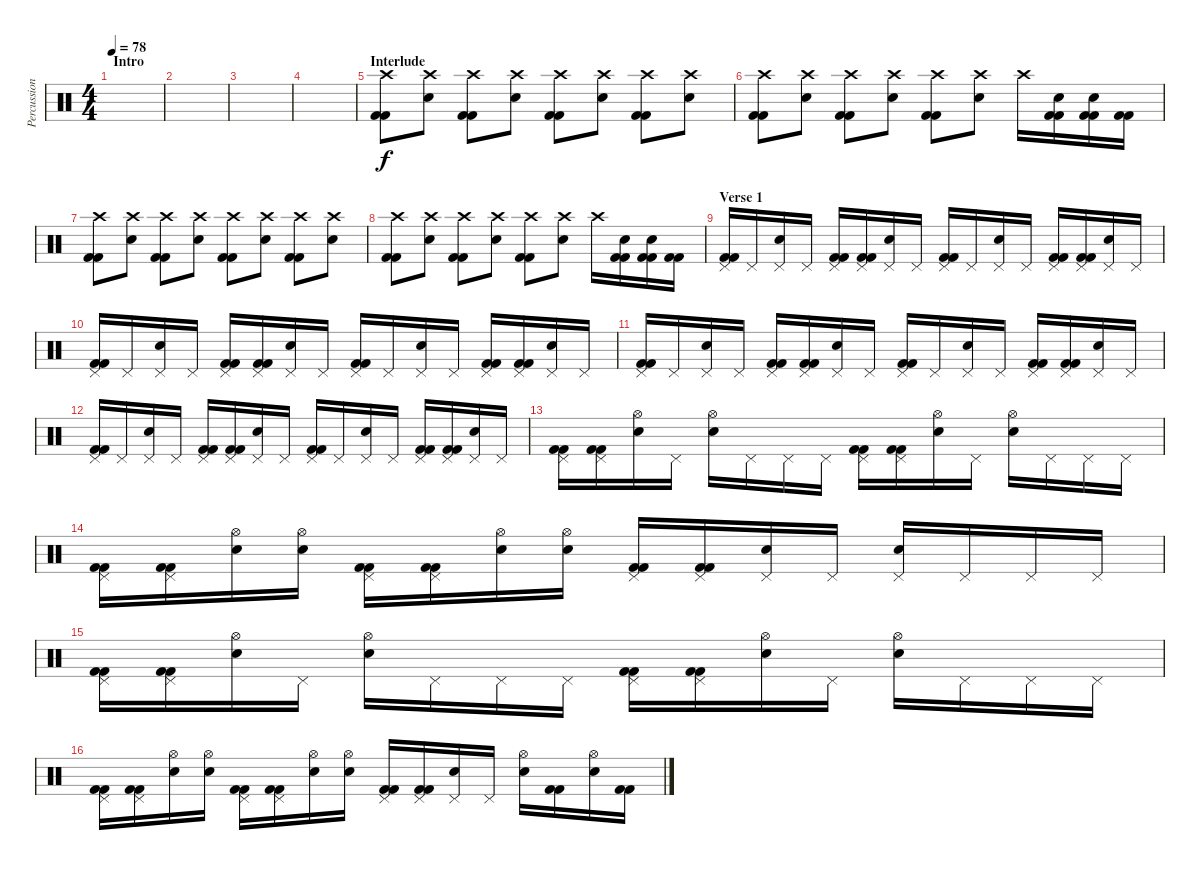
\track ("Percussion" "Percussion") {instrument percussion}
\staff {score}
\articulation defaults
\ts (4 4)
\section ("" "Intro")
\tempo 78
\clef neutral
\ks c
|
|
|
|
\section ("" "Interlude")
("Crash high (hit)" "Kick (hit) 2" "Kick (hit) 2").8 ("Crash high (hit)" "Electric Snare (hit)").8 ("Crash high (hit)" "Kick (hit) 2" "Kick (hit) 2").8 ("Crash high (hit)" "Electric Snare (hit)").8 ("Crash high (hit)" "Kick (hit) 2" "Kick (hit) 2").8 ("Crash high (hit)" "Electric Snare (hit)").8 ("Crash high (hit)" "Kick (hit) 2" "Kick (hit) 2").8 ("Crash high (hit)" "Electric Snare (hit)").8 |
("Crash high (hit)" "Kick (hit) 2" "Kick (hit) 2").8 ("Crash high (hit)" "Electric Snare (hit)").8 ("Crash high (hit)" "Kick (hit) 2" "Kick (hit) 2").8 ("Crash high (hit)" "Electric Snare (hit)").8 ("Crash high (hit)" "Kick (hit) 2" "Kick (hit) 2").8 ("Crash high (hit)" "Electric Snare (hit)").8 "Crash high (hit)".16 ("Electric Snare (hit)" "Kick (hit) 2" "Kick (hit) 2").16 ("Electric Snare (hit)" "Kick (hit) 2" "Kick (hit) 2").16 ("Kick (hit) 2" "Kick (hit) 2").16 |
("Crash high (hit)" "Kick (hit) 2" "Kick (hit) 2").8 ("Crash high (hit)" "Electric Snare (hit)").8 ("Crash high (hit)" "Kick (hit) 2" "Kick (hit) 2").8 ("Crash high (hit)" "Electric Snare (hit)").8 ("Crash high (hit)" "Kick (hit) 2" "Kick (hit) 2").8 ("Crash high (hit)" "Electric Snare (hit)").8 ("Crash high (hit)" "Kick (hit) 2" "Kick (hit) 2").8 ("Crash high (hit)" "Electric Snare (hit)").8 |
("Crash high (hit)" "Kick (hit) 2" "Kick (hit) 2").8 ("Crash high (hit)" "Electric Snare (hit)").8 ("Crash high (hit)" "Kick (hit) 2" "Kick (hit) 2").8 ("Crash high (hit)" "Electric Snare (hit)").8 ("Crash high (hit)" "Kick (hit) 2" "Kick (hit) 2").8 ("Crash high (hit)" "Electric Snare (hit)").8 "Crash high (hit)".16 ("Electric Snare (hit)" "Kick (hit) 2" "Kick (hit) 2").16 ("Electric Snare (hit)" "Kick (hit) 2" "Kick (hit) 2").16 ("Kick (hit) 2" "Kick (hit) 2").16 |
\section ("" "Verse 1")
("Pedal Hi-Hat (hit)" "Kick (hit) 2" "Kick (hit) 2").16 "Pedal Hi-Hat (hit)".16 ("Pedal Hi-Hat (hit)" "Electric Snare (hit)").16 "Pedal Hi-Hat (hit)".16 ("Pedal Hi-Hat (hit)" "Kick (hit) 2" "Kick (hit) 2").16 ("Pedal Hi-Hat (hit)" "Kick (hit) 2" "Kick (hit) 2").16 ("Pedal Hi-Hat (hit)" "Electric Snare (hit)").16 "Pedal Hi-Hat (hit)".16 ("Pedal Hi-Hat (hit)" "Kick (hit) 2" "Kick (hit) 2").16 "Pedal Hi-Hat (hit)".16 ("Pedal Hi-Hat (hit)" "Electric Snare (hit)").16 "Pedal Hi-Hat (hit)".16 ("Pedal Hi-Hat (hit)" "Kick (hit) 2" "Kick (hit) 2").16 ("Pedal Hi-Hat (hit)" "Kick (hit) 2" "Kick (hit) 2").16 ("Pedal Hi-Hat (hit)" "Electric Snare (hit)").16 "Pedal Hi-Hat (hit)".16 |
("Pedal Hi-Hat (hit)" "Kick (hit) 2" "Kick (hit) 2").16 "Pedal Hi-Hat (hit)".16 ("Pedal Hi-Hat (hit)" "Electric Snare (hit)").16 "Pedal Hi-Hat (hit)".16 ("Pedal Hi-Hat (hit)" "Kick (hit) 2" "Kick (hit) 2").16 ("Pedal Hi-Hat (hit)" "Kick (hit) 2" "Kick (hit) 2").16 ("Pedal Hi-Hat (hit)" "Electric Snare (hit)").16 "Pedal Hi-Hat (hit)".16 ("Pedal Hi-Hat (hit)" "Kick (hit) 2" "Kick (hit) 2").16 "Pedal Hi-Hat (hit)".16 ("Pedal Hi-Hat (hit)" "Electric Snare (hit)").16 "Pedal Hi-Hat (hit)".16 ("Pedal Hi-Hat (hit)" "Kick (hit) 2" "Kick (hit) 2").16 ("Pedal Hi-Hat (hit)" "Kick (hit) 2" "Kick (hit) 2").16 ("Pedal Hi-Hat (hit)" "Electric Snare (hit)").16 "Pedal Hi-Hat (hit)".16 |
("Pedal Hi-Hat (hit)" "Kick (hit) 2" "Kick (hit) 2").16 "Pedal Hi-Hat (hit)".16 ("Pedal Hi-Hat (hit)" "Electric Snare (hit)").16 "Pedal Hi-Hat (hit)".16 ("Pedal Hi-Hat (hit)" "Kick (hit) 2" "Kick (hit) 2").16 ("Pedal Hi-Hat (hit)" "Kick (hit) 2" "Kick (hit) 2").16 ("Pedal Hi-Hat (hit)" "Electric Snare (hit)").16 "Pedal Hi-Hat (hit)".16 ("Pedal Hi-Hat (hit)" "Kick (hit) 2" "Kick (hit) 2").16 "Pedal Hi-Hat (hit)".16 ("Pedal Hi-Hat (hit)" "Electric Snare (hit)").16 "Pedal Hi-Hat (hit)".16 ("Pedal Hi-Hat (hit)" "Kick (hit) 2" "Kick (hit) 2").16 ("Pedal Hi-Hat (hit)" "Kick (hit) 2" "Kick (hit) 2").16 ("Pedal Hi-Hat (hit)" "Electric Snare (hit)").16 "Pedal Hi-Hat (hit)".16 |
("Pedal Hi-Hat (hit)" "Kick (hit) 2" "Kick (hit) 2").16 "Pedal Hi-Hat (hit)".16 ("Pedal Hi-Hat (hit)" "Electric Snare (hit)").16 "Pedal Hi-Hat (hit)".16 ("Pedal Hi-Hat (hit)" "Kick (hit) 2" "Kick (hit) 2").16 ("Pedal Hi-Hat (hit)" "Kick (hit) 2" "Kick (hit) 2").16 ("Pedal Hi-Hat (hit)" "Electric Snare (hit)").16 "Pedal Hi-Hat (hit)".16 ("Pedal Hi-Hat (hit)" "Kick (hit) 2" "Kick (hit) 2").16 "Pedal Hi-Hat (hit)".16 ("Pedal Hi-Hat (hit)" "Electric Snare (hit)").16 "Pedal Hi-Hat (hit)".16 ("Pedal Hi-Hat (hit)" "Kick (hit) 2" "Kick (hit) 2").16 ("Pedal Hi-Hat (hit)" "Kick (hit) 2" "Kick (hit) 2").16 ("Pedal Hi-Hat (hit)" "Electric Snare (hit)").16 "Pedal Hi-Hat (hit)".16 |
("Pedal Hi-Hat (hit)" "Kick (hit) 2" "Kick (hit) 2").16 ("Pedal Hi-Hat (hit)" "Kick (hit) 2" "Kick (hit) 2").16 ("Hi-Hat (open)" "Electric Snare (hit)").16 "Pedal Hi-Hat (hit)".16 ("Hi-Hat (open)" "Electric Snare (hit)").16 "Pedal Hi-Hat (hit)".16 "Pedal Hi-Hat (hit)".16 "Pedal Hi-Hat (hit)".16 ("Pedal Hi-Hat (hit)" "Kick (hit) 2" "Kick (hit) 2").16 ("Pedal Hi-Hat (hit)" "Kick (hit) 2" "Kick (hit) 2").16 ("Hi-Hat (open)" "Electric Snare (hit)").16 "Pedal Hi-Hat (hit)".16 ("Hi-Hat (open)" "Electric Snare (hit)").16 "Pedal Hi-Hat (hit)".16 "Pedal Hi-Hat (hit)".16 "Pedal Hi-Hat (hit)".16 |
("Pedal Hi-Hat (hit)" "Kick (hit) 2" "Kick (hit) 2").16 ("Pedal Hi-Hat (hit)" "Kick (hit) 2" "Kick (hit) 2").16 ("Hi-Hat (open)" "Electric Snare (hit)").16 ("Hi-Hat (open)" "Electric Snare (hit)").16 ("Pedal Hi-Hat (hit)" "Kick (hit) 2" "Kick (hit) 2").16 ("Pedal Hi-Hat (hit)" "Kick (hit) 2" "Kick (hit) 2").16 ("Hi-Hat (open)" "Electric Snare (hit)").16 ("Hi-Hat (open)" "Electric Snare (hit)").16 ("Pedal Hi-Hat (hit)" "Kick (hit) 2" "Kick (hit) 2").16 ("Pedal Hi-Hat (hit)" "Kick (hit) 2" "Kick (hit) 2").16 ("Pedal Hi-Hat (hit)" "Electric Snare (hit)").16 "Pedal Hi-Hat (hit)".16 ("Pedal Hi-Hat (hit)" "Electric Snare (hit)").16 "Pedal Hi-Hat (hit)".16 "Pedal Hi-Hat (hit)".16 "Pedal Hi-Hat (hit)".16 |
("Pedal Hi-Hat (hit)" "Kick (hit) 2" "Kick (hit) 2").16 ("Pedal Hi-Hat (hit)" "Kick (hit) 2" "Kick (hit) 2").16 ("Hi-Hat (open)" "Electric Snare (hit)").16 "Pedal Hi-Hat (hit)".16 ("Hi-Hat (open)" "Electric Snare (hit)").16 "Pedal Hi-Hat (hit)".16 "Pedal Hi-Hat (hit)".16 "Pedal Hi-Hat (hit)".16 ("Pedal Hi-Hat (hit)" "Kick (hit) 2" "Kick (hit) 2").16 ("Pedal Hi-Hat (hit)" "Kick (hit) 2" "Kick (hit) 2").16 ("Hi-Hat (open)" "Electric Snare (hit)").16 "Pedal Hi-Hat (hit)".16 ("Hi-Hat (open)" "Electric Snare (hit)").16 "Pedal Hi-Hat (hit)".16 "Pedal Hi-Hat (hit)".16 "Pedal Hi-Hat (hit)".16 |
("Pedal Hi-Hat (hit)" "Kick (hit) 2" "Kick (hit) 2").16 ("Pedal Hi-Hat (hit)" "Kick (hit) 2" "Kick (hit) 2").16 ("Hi-Hat (open)" "Electric Snare (hit)").16 ("Hi-Hat (open)" "Electric Snare (hit)").16 ("Pedal Hi-Hat (hit)" "Kick (hit) 2" "Kick (hit) 2").16 ("Pedal Hi-Hat (hit)" "Kick (hit) 2" "Kick (hit) 2").16 ("Hi-Hat (open)" "Electric Snare (hit)").16 ("Hi-Hat (open)" "Electric Snare (hit)").16 ("Pedal Hi-Hat (hit)" "Kick (hit) 2" "Kick (hit) 2").16 ("Pedal Hi-Hat (hit)" "Kick (hit) 2" "Kick (hit) 2").16 ("Pedal Hi-Hat (hit)" "Electric Snare (hit)").16 "Pedal Hi-Hat (hit)".16 ("Hi-Hat (open)" "Electric Snare (hit)").16 ("Kick (hit) 2" "Kick (hit) 2").16 ("Hi-Hat (open)" "Electric Snare (hit)").16 ("Kick (hit) 2" "Kick (hit) 2").16
